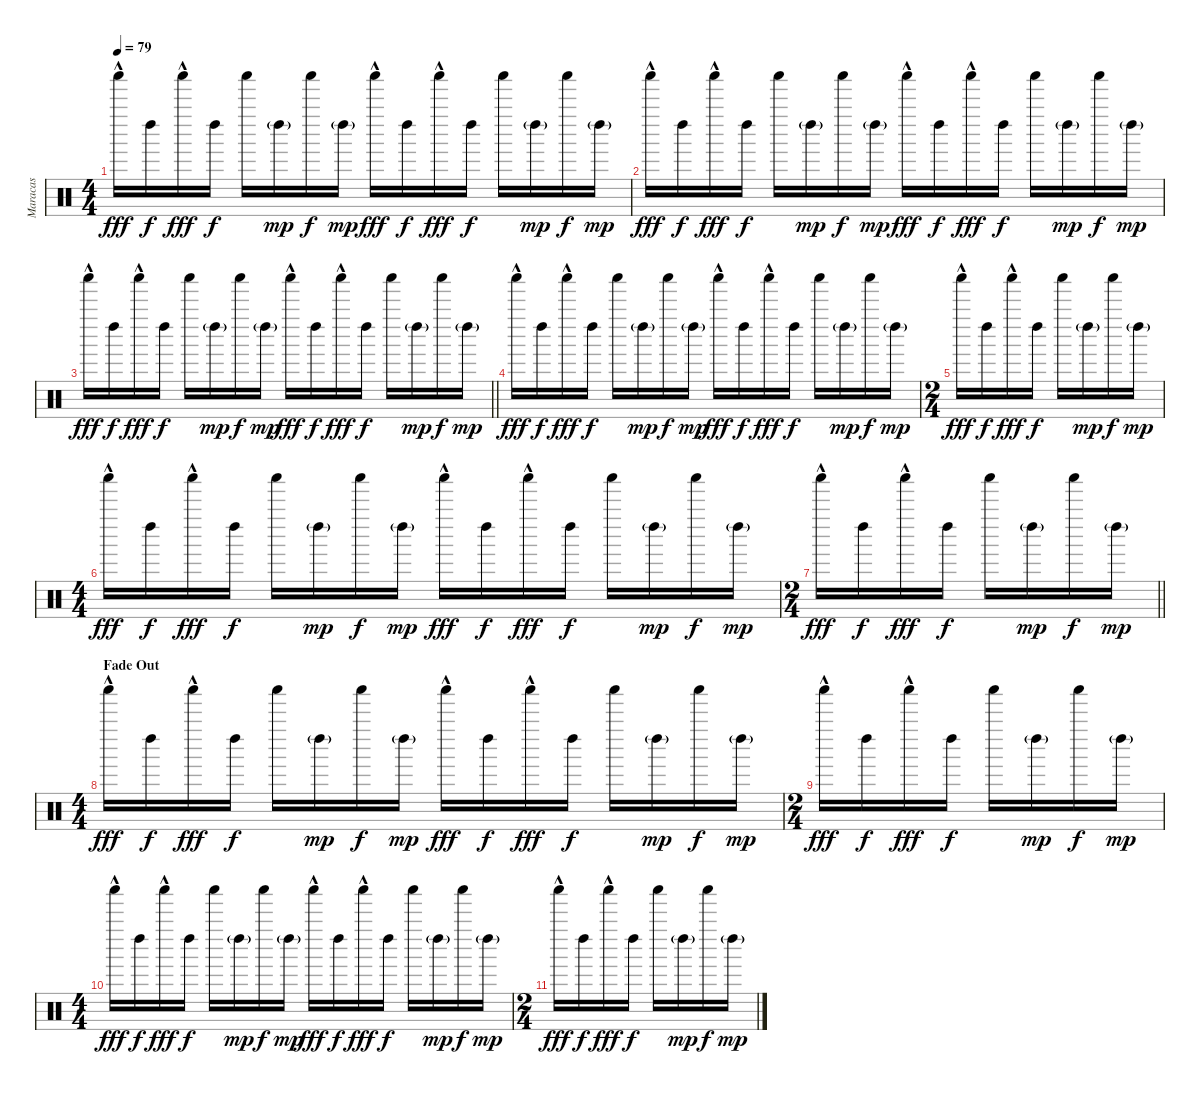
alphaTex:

\track ("Maracas" "Maracas") {instrument percussion}
\staff {score}
\articulation defaults
\ts (4 4)
\section ("" "")
\tempo 79
\clef neutral
\ks c "Shaker (hit)"{hac}.16{dy fff} "Left Maraca (hit)".16{dy f} "Shaker (hit)"{hac}.16{dy fff} "Left Maraca (hit)".16{dy f} "Shaker (hit)".16 "Left Maraca (hit)"{g}.16{dy mp} "Shaker (hit)".16{dy f} "Left Maraca (hit)"{g}.16{dy mp} "Shaker (hit)"{hac}.16{dy fff} "Left Maraca (hit)".16{dy f} "Shaker (hit)"{hac}.16{dy fff} "Left Maraca (hit)".16{dy f} "Shaker (hit)".16 "Left Maraca (hit)"{g}.16{dy mp} "Shaker (hit)".16{dy f} "Left Maraca (hit)"{g}.16{dy mp}
|
"Shaker (hit)"{hac}.16{dy fff} "Left Maraca (hit)".16{dy f} "Shaker (hit)"{hac}.16{dy fff} "Left Maraca (hit)".16{dy f} "Shaker (hit)".16 "Left Maraca (hit)"{g}.16{dy mp} "Shaker (hit)".16{dy f} "Left Maraca (hit)"{g}.16{dy mp} "Shaker (hit)"{hac}.16{dy fff} "Left Maraca (hit)".16{dy f} "Shaker (hit)"{hac}.16{dy fff} "Left Maraca (hit)".16{dy f} "Shaker (hit)".16 "Left Maraca (hit)"{g}.16{dy mp} "Shaker (hit)".16{dy f} "Left Maraca (hit)"{g}.16{dy mp} |
\barLineRight lightlight "Shaker (hit)"{hac}.16{dy fff} "Left Maraca (hit)".16{dy f} "Shaker (hit)"{hac}.16{dy fff} "Left Maraca (hit)".16{dy f} "Shaker (hit)".16 "Left Maraca (hit)"{g}.16{dy mp} "Shaker (hit)".16{dy f} "Left Maraca (hit)"{g}.16{dy mp} "Shaker (hit)"{hac}.16{dy fff} "Left Maraca (hit)".16{dy f} "Shaker (hit)"{hac}.16{dy fff} "Left Maraca (hit)".16{dy f} "Shaker (hit)".16 "Left Maraca (hit)"{g}.16{dy mp} "Shaker (hit)".16{dy f} "Left Maraca (hit)"{g}.16{dy mp}
|
\section ("" "")
"Shaker (hit)"{hac}.16{dy fff} "Left Maraca (hit)".16{dy f} "Shaker (hit)"{hac}.16{dy fff} "Left Maraca (hit)".16{dy f} "Shaker (hit)".16 "Left Maraca (hit)"{g}.16{dy mp} "Shaker (hit)".16{dy f} "Left Maraca (hit)"{g}.16{dy mp} "Shaker (hit)"{hac}.16{dy fff} "Left Maraca (hit)".16{dy f} "Shaker (hit)"{hac}.16{dy fff} "Left Maraca (hit)".16{dy f} "Shaker (hit)".16 "Left Maraca (hit)"{g}.16{dy mp} "Shaker (hit)".16{dy f} "Left Maraca (hit)"{g}.16{dy mp} |
\ts (2 4)
"Shaker (hit)"{hac}.16{dy fff} "Left Maraca (hit)".16{dy f} "Shaker (hit)"{hac}.16{dy fff} "Left Maraca (hit)".16{dy f} "Shaker (hit)".16 "Left Maraca (hit)"{g}.16{dy mp} "Shaker (hit)".16{dy f} "Left Maraca (hit)"{g}.16{dy mp} |
\ts (4 4)
"Shaker (hit)"{hac}.16{dy fff} "Left Maraca (hit)".16{dy f} "Shaker (hit)"{hac}.16{dy fff} "Left Maraca (hit)".16{dy f} "Shaker (hit)".16 "Left Maraca (hit)"{g}.16{dy mp} "Shaker (hit)".16{dy f} "Left Maraca (hit)"{g}.16{dy mp} "Shaker (hit)"{hac}.16{dy fff} "Left Maraca (hit)".16{dy f} "Shaker (hit)"{hac}.16{dy fff} "Left Maraca (hit)".16{dy f} "Shaker (hit)".16 "Left Maraca (hit)"{g}.16{dy mp} "Shaker (hit)".16{dy f} "Left Maraca (hit)"{g}.16{dy mp} |
\ts (2 4)
\barLineRight lightlight "Shaker (hit)"{hac}.16{dy fff} "Left Maraca (hit)".16{dy f} "Shaker (hit)"{hac}.16{dy fff} "Left Maraca (hit)".16{dy f} "Shaker (hit)".16 "Left Maraca (hit)"{g}.16{dy mp} "Shaker (hit)".16{dy f} "Left Maraca (hit)"{g}.16{dy mp}
|
\ts (4 4)
\section ("" "Fade Out")
"Shaker (hit)"{hac}.16{dy fff} "Left Maraca (hit)".16{dy f} "Shaker (hit)"{hac}.16{dy fff} "Left Maraca (hit)".16{dy f} "Shaker (hit)".16 "Left Maraca (hit)"{g}.16{dy mp} "Shaker (hit)".16{dy f} "Left Maraca (hit)"{g}.16{dy mp} "Shaker (hit)"{hac}.16{dy fff} "Left Maraca (hit)".16{dy f} "Shaker (hit)"{hac}.16{dy fff} "Left Maraca (hit)".16{dy f} "Shaker (hit)".16 "Left Maraca (hit)"{g}.16{dy mp} "Shaker (hit)".16{dy f} "Left Maraca (hit)"{g}.16{dy mp} |
\ts (2 4)
"Shaker (hit)"{hac}.16{dy fff} "Left Maraca (hit)".16{dy f} "Shaker (hit)"{hac}.16{dy fff} "Left Maraca (hit)".16{dy f} "Shaker (hit)".16 "Left Maraca (hit)"{g}.16{dy mp} "Shaker (hit)".16{dy f} "Left Maraca (hit)"{g}.16{dy mp} |
\ts (4 4)
"Shaker (hit)"{hac}.16{dy fff} "Left Maraca (hit)".16{dy f} "Shaker (hit)"{hac}.16{dy fff} "Left Maraca (hit)".16{dy f} "Shaker (hit)".16 "Left Maraca (hit)"{g}.16{dy mp} "Shaker (hit)".16{dy f} "Left Maraca (hit)"{g}.16{dy mp} "Shaker (hit)"{hac}.16{dy fff} "Left Maraca (hit)".16{dy f} "Shaker (hit)"{hac}.16{dy fff} "Left Maraca (hit)".16{dy f} "Shaker (hit)".16 "Left Maraca (hit)"{g}.16{dy mp} "Shaker (hit)".16{dy f} "Left Maraca (hit)"{g}.16{dy mp} |
\ts (2 4)
"Shaker (hit)"{hac}.16{dy fff} "Left Maraca (hit)".16{dy f} "Shaker (hit)"{hac}.16{dy fff} "Left Maraca (hit)".16{dy f} "Shaker (hit)".16 "Left Maraca (hit)"{g}.16{dy mp} "Shaker (hit)".16{dy f} "Left Maraca (hit)"{g}.16{dy mp}
